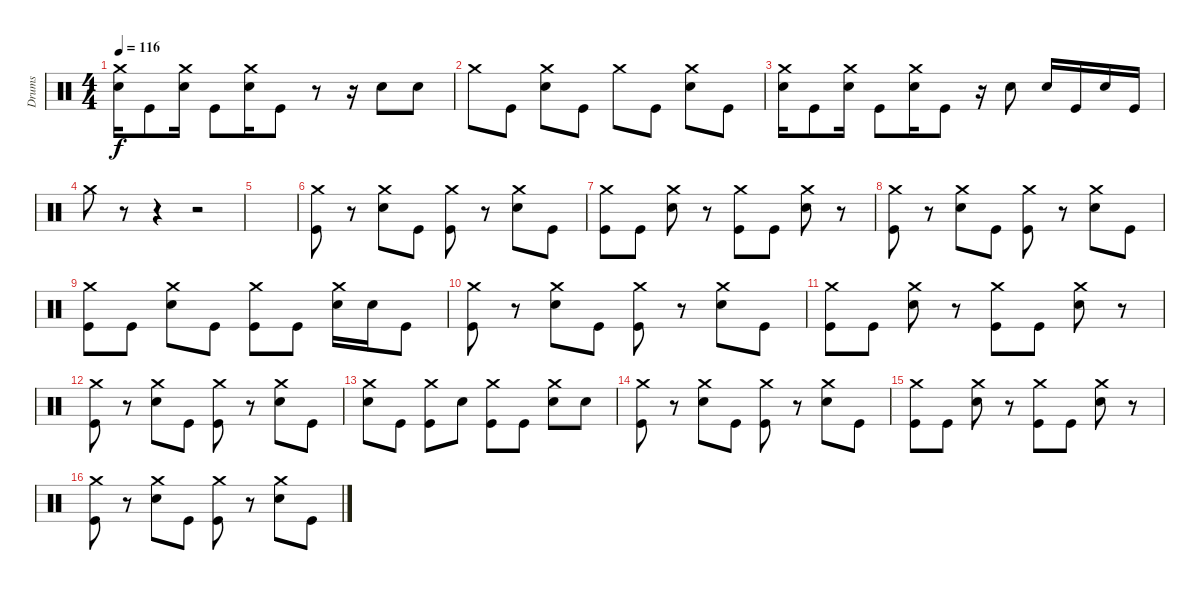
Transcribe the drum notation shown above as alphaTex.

\track ("Drums" "Drums") {instrument percussion}
\staff {score}
\articulation defaults
\ts (4 4)
\tempo 116
\clef neutral
\ks c
("Crash medium (hit)" "Snare (hit) 2").16{dy f} "Kick (hit)".8 ("Crash medium (hit)" "Snare (hit) 2").16 "Kick (hit)".8 ("Crash medium (hit)" "Snare (hit) 2").16 "Kick (hit)".8 r.8 r.16 "Snare (hit) 2".8 "Snare (hit) 2".8 |
"Crash medium (hit)".8 "Kick (hit)".8 ("Crash medium (hit)" "Snare (hit) 2").8 "Kick (hit)".8 "Crash medium (hit)".8 "Kick (hit)".8 ("Crash medium (hit)" "Snare (hit) 2").8 "Kick (hit)".8 |
("Crash medium (hit)" "Snare (hit) 2").16 "Kick (hit)".8 ("Crash medium (hit)" "Snare (hit) 2").16 "Kick (hit)".8 ("Crash medium (hit)" "Snare (hit) 2").16 "Kick (hit)".8 r.16 "Snare (hit) 2".8 "Snare (hit) 2".16 "Kick (hit)".16 "Snare (hit) 2".16 "Kick (hit)".16 |
"Crash medium (hit)".8 r.8 r.4 r.2 |
|
("Crash medium (hit)" "Kick (hit)").8 r.8 ("Crash medium (hit)" "Snare (hit) 2").8 "Kick (hit)".8 ("Crash medium (hit)" "Kick (hit)").8 r.8 ("Crash medium (hit)" "Snare (hit) 2").8 "Kick (hit)".8 |
("Crash medium (hit)" "Kick (hit)").8 "Kick (hit)".8 ("Crash medium (hit)" "Snare (hit) 2").8 r.8 ("Crash medium (hit)" "Kick (hit)").8 "Kick (hit)".8 ("Crash medium (hit)" "Snare (hit) 2").8 r.8 |
("Crash medium (hit)" "Kick (hit)").8 r.8 ("Crash medium (hit)" "Snare (hit) 2").8 "Kick (hit)".8 ("Crash medium (hit)" "Kick (hit)").8 r.8 ("Crash medium (hit)" "Snare (hit) 2").8 "Kick (hit)".8 |
("Crash medium (hit)" "Kick (hit)").8 "Kick (hit)".8 ("Crash medium (hit)" "Snare (hit) 2").8 "Kick (hit)".8 ("Crash medium (hit)" "Kick (hit)").8 "Kick (hit)".8 ("Crash medium (hit)" "Snare (hit) 2").16 "Snare (hit) 2".16 "Kick (hit)".8 |
("Crash medium (hit)" "Kick (hit)").8 r.8 ("Crash medium (hit)" "Snare (hit) 2").8 "Kick (hit)".8 ("Crash medium (hit)" "Kick (hit)").8 r.8 ("Crash medium (hit)" "Snare (hit) 2").8 "Kick (hit)".8 |
("Crash medium (hit)" "Kick (hit)").8 "Kick (hit)".8 ("Crash medium (hit)" "Snare (hit) 2").8 r.8 ("Crash medium (hit)" "Kick (hit)").8 "Kick (hit)".8 ("Crash medium (hit)" "Snare (hit) 2").8 r.8 |
("Crash medium (hit)" "Kick (hit)").8 r.8 ("Crash medium (hit)" "Snare (hit) 2").8 "Kick (hit)".8 ("Crash medium (hit)" "Kick (hit)").8 r.8 ("Crash medium (hit)" "Snare (hit) 2").8 "Kick (hit)".8 |
("Crash medium (hit)" "Snare (hit) 2").8 "Kick (hit)".8 ("Crash medium (hit)" "Kick (hit)").8 "Snare (hit) 2".8 ("Crash medium (hit)" "Kick (hit)").8 "Kick (hit)".8 ("Crash medium (hit)" "Snare (hit) 2").8 "Snare (hit) 2".8 |
("Crash medium (hit)" "Kick (hit)").8 r.8 ("Crash medium (hit)" "Snare (hit) 2").8 "Kick (hit)".8 ("Crash medium (hit)" "Kick (hit)").8 r.8 ("Crash medium (hit)" "Snare (hit) 2").8 "Kick (hit)".8 |
("Crash medium (hit)" "Kick (hit)").8 "Kick (hit)".8 ("Crash medium (hit)" "Snare (hit) 2").8 r.8 ("Crash medium (hit)" "Kick (hit)").8 "Kick (hit)".8 ("Crash medium (hit)" "Snare (hit) 2").8 r.8 |
("Crash medium (hit)" "Kick (hit)").8 r.8 ("Crash medium (hit)" "Snare (hit) 2").8 "Kick (hit)".8 ("Crash medium (hit)" "Kick (hit)").8 r.8 ("Crash medium (hit)" "Snare (hit) 2").8 "Kick (hit)".8
